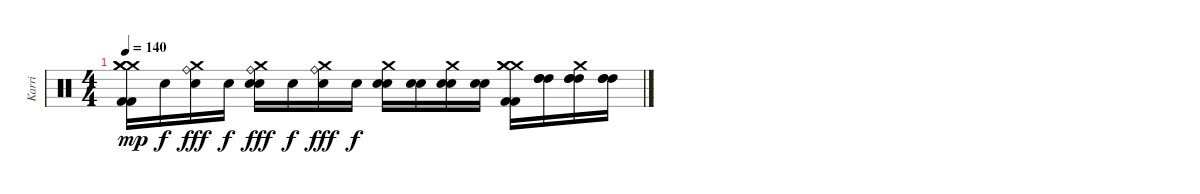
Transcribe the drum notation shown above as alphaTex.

\track ("Karri" "Karri") {instrument percussion}
\staff {score}
\articulation defaults
\ts (4 4)
\tempo 140
\clef neutral
\ks c
("Crash medium (hit)" "Crash medium (hit)" "Crash medium (hit)" "Kick (hit) 2" "Kick (hit) 2").16{dy mp} "Snare (hit)"{x}.16{dy f} ("Ride (bell)" "Crash medium (hit)"{x} "Snare (hit)"{x}).16{dy fff} "Snare (hit)"{x}.16{dy f} ("Ride (bell)" "Crash medium (hit)"{x} "Snare (hit) 2" "Snare (hit) 2").16{dy fff} "Snare (hit)"{x}.16{dy f} ("Ride (bell)" "Crash medium (hit)"{x} "Snare (hit)"{x}).16{dy fff} "Snare (hit)"{x}.16{dy f} ("Crash medium (hit)"{x} "Snare (hit) 2" "Snare (hit) 2").16 ("Snare (hit) 2" "Snare (hit) 2").16 ("Crash medium (hit)"{x} "Snare (hit) 2" "Snare (hit) 2").16 ("Snare (hit) 2" "Snare (hit) 2").16 ("Crash medium (hit)" "Crash medium (hit)" "Crash medium (hit)" "Kick (hit) 2" "Kick (hit) 2").16 ("High Tom (hit)"{x} "High Tom (hit)"{x} "High Tom (hit)"{x}).16 ("Crash medium (hit)"{x} "High Tom (hit)"{x} "High Tom (hit)"{x} "High Tom (hit)"{x}).16 ("High Tom (hit)"{x} "High Tom (hit)"{x} "High Tom (hit)"{x}).16
